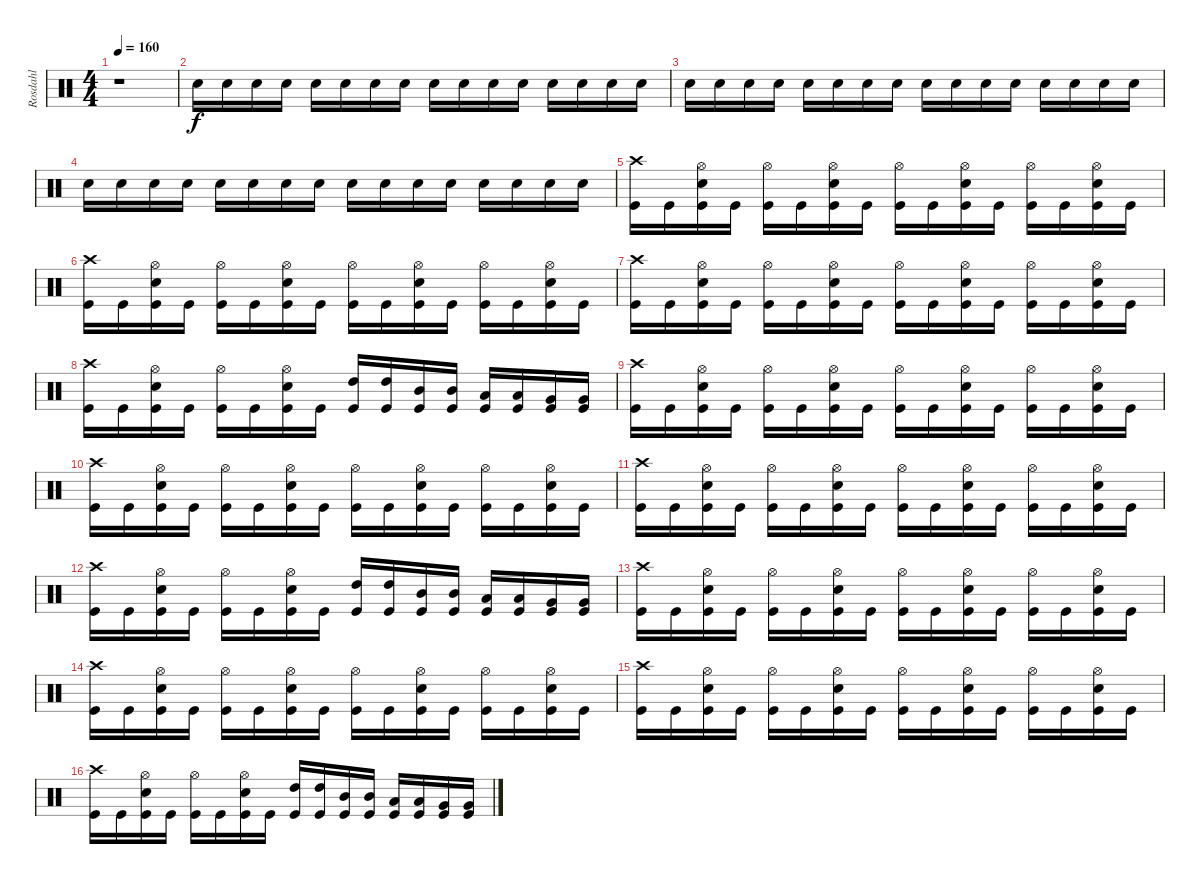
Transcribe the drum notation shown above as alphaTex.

\track ("Rosdahl" "Rosdahl") {instrument percussion}
\staff {score}
\articulation defaults
\ts (4 4)
\tempo 160
\clef neutral
\ks c
r.1{dy f} |
"Electric Snare (hit)".16{volume 13} "Electric Snare (hit)".16 "Electric Snare (hit)".16 "Electric Snare (hit)".16 "Electric Snare (hit)".16 "Electric Snare (hit)".16 "Electric Snare (hit)".16 "Electric Snare (hit)".16 "Electric Snare (hit)".16 "Electric Snare (hit)".16 "Electric Snare (hit)".16 "Electric Snare (hit)".16 "Electric Snare (hit)".16 "Electric Snare (hit)".16 "Electric Snare (hit)".16 "Electric Snare (hit)".16 |
"Electric Snare (hit)".16 "Electric Snare (hit)".16 "Electric Snare (hit)".16 "Electric Snare (hit)".16 "Electric Snare (hit)".16 "Electric Snare (hit)".16 "Electric Snare (hit)".16 "Electric Snare (hit)".16 "Electric Snare (hit)".16 "Electric Snare (hit)".16 "Electric Snare (hit)".16 "Electric Snare (hit)".16 "Electric Snare (hit)".16 "Electric Snare (hit)".16 "Electric Snare (hit)".16 "Electric Snare (hit)".16 |
"Electric Snare (hit)".16 "Electric Snare (hit)".16 "Electric Snare (hit)".16 "Electric Snare (hit)".16 "Electric Snare (hit)".16 "Electric Snare (hit)".16 "Electric Snare (hit)".16 "Electric Snare (hit)".16 "Electric Snare (hit)".16 "Electric Snare (hit)".16 "Electric Snare (hit)".16 "Electric Snare (hit)".16 "Electric Snare (hit)".16 "Electric Snare (hit)".16 "Electric Snare (hit)".16 "Electric Snare (hit)".16 |
("Crash high (hit)" "Kick (hit)").16 "Kick (hit)".16 ("Hi-Hat (open)" "Electric Snare (hit)" "Kick (hit)").16 "Kick (hit)".16 ("Hi-Hat (open)" "Kick (hit)").16 "Kick (hit)".16 ("Hi-Hat (open)" "Electric Snare (hit)" "Kick (hit)").16 "Kick (hit)".16 ("Hi-Hat (open)" "Kick (hit)").16 "Kick (hit)".16 ("Hi-Hat (open)" "Electric Snare (hit)" "Kick (hit)").16 "Kick (hit)".16 ("Hi-Hat (open)" "Kick (hit)").16 "Kick (hit)".16 ("Hi-Hat (open)" "Electric Snare (hit)" "Kick (hit)").16 "Kick (hit)".16 |
("Crash high (hit)" "Kick (hit)").16 "Kick (hit)".16 ("Hi-Hat (open)" "Electric Snare (hit)" "Kick (hit)").16 "Kick (hit)".16 ("Hi-Hat (open)" "Kick (hit)").16 "Kick (hit)".16 ("Hi-Hat (open)" "Electric Snare (hit)" "Kick (hit)").16 "Kick (hit)".16 ("Hi-Hat (open)" "Kick (hit)").16 "Kick (hit)".16 ("Hi-Hat (open)" "Electric Snare (hit)" "Kick (hit)").16 "Kick (hit)".16 ("Hi-Hat (open)" "Kick (hit)").16 "Kick (hit)".16 ("Hi-Hat (open)" "Electric Snare (hit)" "Kick (hit)").16 "Kick (hit)".16 |
("Crash high (hit)" "Kick (hit)").16 "Kick (hit)".16 ("Hi-Hat (open)" "Electric Snare (hit)" "Kick (hit)").16 "Kick (hit)".16 ("Hi-Hat (open)" "Kick (hit)").16 "Kick (hit)".16 ("Hi-Hat (open)" "Electric Snare (hit)" "Kick (hit)").16 "Kick (hit)".16 ("Hi-Hat (open)" "Kick (hit)").16 "Kick (hit)".16 ("Hi-Hat (open)" "Electric Snare (hit)" "Kick (hit)").16 "Kick (hit)".16 ("Hi-Hat (open)" "Kick (hit)").16 "Kick (hit)".16 ("Hi-Hat (open)" "Electric Snare (hit)" "Kick (hit)").16 "Kick (hit)".16 |
("Crash high (hit)" "Kick (hit)").16 "Kick (hit)".16 ("Hi-Hat (open)" "Electric Snare (hit)" "Kick (hit)").16 "Kick (hit)".16 ("Hi-Hat (open)" "Kick (hit)").16 "Kick (hit)".16 ("Hi-Hat (open)" "Electric Snare (hit)" "Kick (hit)").16 "Kick (hit)".16 ("High Tom (hit)" "Kick (hit)").16 ("High Tom (hit)" "Kick (hit)").16 ("Mid Tom (hit)" "Kick (hit)").16 ("Mid Tom (hit)" "Kick (hit)").16 ("Low Tom (hit)" "Kick (hit)").16 ("Low Tom (hit)" "Kick (hit)").16 ("Very Low Tom (hit)" "Kick (hit)").16 ("Very Low Tom (hit)" "Kick (hit)").16 |
("Crash high (hit)" "Kick (hit)").16 "Kick (hit)".16 ("Hi-Hat (open)" "Electric Snare (hit)" "Kick (hit)").16 "Kick (hit)".16 ("Hi-Hat (open)" "Kick (hit)").16 "Kick (hit)".16 ("Hi-Hat (open)" "Electric Snare (hit)" "Kick (hit)").16 "Kick (hit)".16 ("Hi-Hat (open)" "Kick (hit)").16 "Kick (hit)".16 ("Hi-Hat (open)" "Electric Snare (hit)" "Kick (hit)").16 "Kick (hit)".16 ("Hi-Hat (open)" "Kick (hit)").16 "Kick (hit)".16 ("Hi-Hat (open)" "Electric Snare (hit)" "Kick (hit)").16 "Kick (hit)".16 |
("Crash high (hit)" "Kick (hit)").16 "Kick (hit)".16 ("Hi-Hat (open)" "Electric Snare (hit)" "Kick (hit)").16 "Kick (hit)".16 ("Hi-Hat (open)" "Kick (hit)").16 "Kick (hit)".16 ("Hi-Hat (open)" "Electric Snare (hit)" "Kick (hit)").16 "Kick (hit)".16 ("Hi-Hat (open)" "Kick (hit)").16 "Kick (hit)".16 ("Hi-Hat (open)" "Electric Snare (hit)" "Kick (hit)").16 "Kick (hit)".16 ("Hi-Hat (open)" "Kick (hit)").16 "Kick (hit)".16 ("Hi-Hat (open)" "Electric Snare (hit)" "Kick (hit)").16 "Kick (hit)".16 |
("Crash high (hit)" "Kick (hit)").16 "Kick (hit)".16 ("Hi-Hat (open)" "Electric Snare (hit)" "Kick (hit)").16 "Kick (hit)".16 ("Hi-Hat (open)" "Kick (hit)").16 "Kick (hit)".16 ("Hi-Hat (open)" "Electric Snare (hit)" "Kick (hit)").16 "Kick (hit)".16 ("Hi-Hat (open)" "Kick (hit)").16 "Kick (hit)".16 ("Hi-Hat (open)" "Electric Snare (hit)" "Kick (hit)").16 "Kick (hit)".16 ("Hi-Hat (open)" "Kick (hit)").16 "Kick (hit)".16 ("Hi-Hat (open)" "Electric Snare (hit)" "Kick (hit)").16 "Kick (hit)".16 |
("Crash high (hit)" "Kick (hit)").16 "Kick (hit)".16 ("Hi-Hat (open)" "Electric Snare (hit)" "Kick (hit)").16 "Kick (hit)".16 ("Hi-Hat (open)" "Kick (hit)").16 "Kick (hit)".16 ("Hi-Hat (open)" "Electric Snare (hit)" "Kick (hit)").16 "Kick (hit)".16 ("High Tom (hit)" "Kick (hit)").16 ("High Tom (hit)" "Kick (hit)").16 ("Mid Tom (hit)" "Kick (hit)").16 ("Mid Tom (hit)" "Kick (hit)").16 ("Low Tom (hit)" "Kick (hit)").16 ("Low Tom (hit)" "Kick (hit)").16 ("Very Low Tom (hit)" "Kick (hit)").16 ("Very Low Tom (hit)" "Kick (hit)").16 |
("Crash high (hit)" "Kick (hit)").16 "Kick (hit)".16 ("Hi-Hat (open)" "Electric Snare (hit)" "Kick (hit)").16 "Kick (hit)".16 ("Hi-Hat (open)" "Kick (hit)").16 "Kick (hit)".16 ("Hi-Hat (open)" "Electric Snare (hit)" "Kick (hit)").16 "Kick (hit)".16 ("Hi-Hat (open)" "Kick (hit)").16 "Kick (hit)".16 ("Hi-Hat (open)" "Electric Snare (hit)" "Kick (hit)").16 "Kick (hit)".16 ("Hi-Hat (open)" "Kick (hit)").16 "Kick (hit)".16 ("Hi-Hat (open)" "Electric Snare (hit)" "Kick (hit)").16 "Kick (hit)".16 |
("Crash high (hit)" "Kick (hit)").16 "Kick (hit)".16 ("Hi-Hat (open)" "Electric Snare (hit)" "Kick (hit)").16 "Kick (hit)".16 ("Hi-Hat (open)" "Kick (hit)").16 "Kick (hit)".16 ("Hi-Hat (open)" "Electric Snare (hit)" "Kick (hit)").16 "Kick (hit)".16 ("Hi-Hat (open)" "Kick (hit)").16 "Kick (hit)".16 ("Hi-Hat (open)" "Electric Snare (hit)" "Kick (hit)").16 "Kick (hit)".16 ("Hi-Hat (open)" "Kick (hit)").16 "Kick (hit)".16 ("Hi-Hat (open)" "Electric Snare (hit)" "Kick (hit)").16 "Kick (hit)".16 |
("Crash high (hit)" "Kick (hit)").16 "Kick (hit)".16 ("Hi-Hat (open)" "Electric Snare (hit)" "Kick (hit)").16 "Kick (hit)".16 ("Hi-Hat (open)" "Kick (hit)").16 "Kick (hit)".16 ("Hi-Hat (open)" "Electric Snare (hit)" "Kick (hit)").16 "Kick (hit)".16 ("Hi-Hat (open)" "Kick (hit)").16 "Kick (hit)".16 ("Hi-Hat (open)" "Electric Snare (hit)" "Kick (hit)").16 "Kick (hit)".16 ("Hi-Hat (open)" "Kick (hit)").16 "Kick (hit)".16 ("Hi-Hat (open)" "Electric Snare (hit)" "Kick (hit)").16 "Kick (hit)".16 |
("Crash high (hit)" "Kick (hit)").16 "Kick (hit)".16 ("Hi-Hat (open)" "Electric Snare (hit)" "Kick (hit)").16 "Kick (hit)".16 ("Hi-Hat (open)" "Kick (hit)").16 "Kick (hit)".16 ("Hi-Hat (open)" "Electric Snare (hit)" "Kick (hit)").16 "Kick (hit)".16 ("High Tom (hit)" "Kick (hit)").16 ("High Tom (hit)" "Kick (hit)").16 ("Mid Tom (hit)" "Kick (hit)").16 ("Mid Tom (hit)" "Kick (hit)").16 ("Low Tom (hit)" "Kick (hit)").16 ("Low Tom (hit)" "Kick (hit)").16 ("Very Low Tom (hit)" "Kick (hit)").16 ("Very Low Tom (hit)" "Kick (hit)").16
